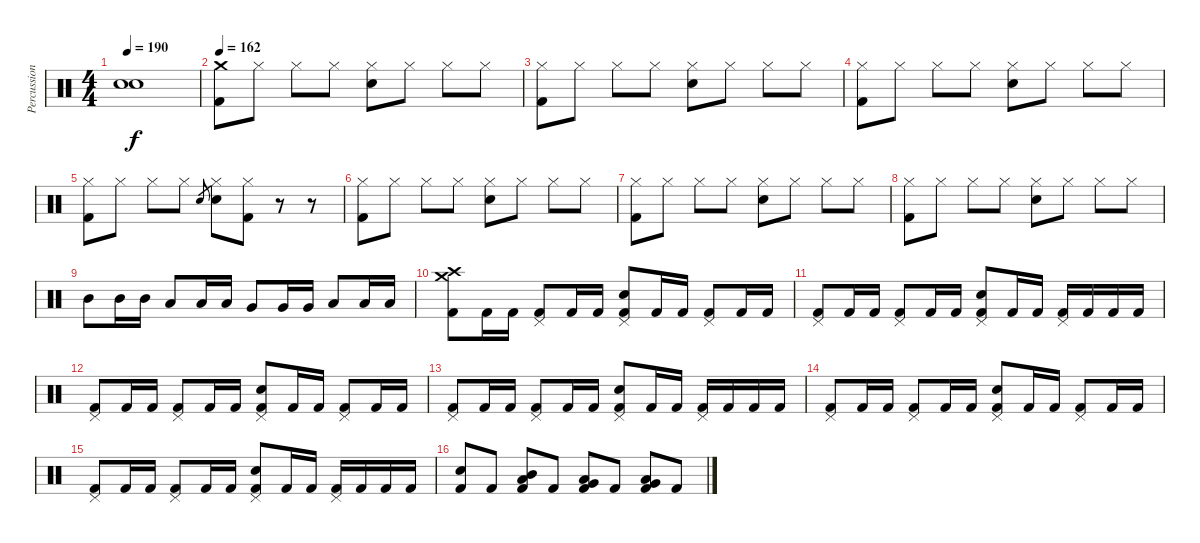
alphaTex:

\track ("Percussion" "Percussion") {instrument percussion}
\staff {score}
\articulation defaults
\ts (4 4)
\tempo 190
\clef neutral
\ks c
("Snare (hit)"{t} "Snare (hit)"{t}).1{dy f} |
\tempo 162
("Kick (hit) 2" "Crash medium (hit)").8{volume 14} "Hi-Hat (closed)".8 "Hi-Hat (closed)".8 "Hi-Hat (closed)".8 ("Snare (hit) 2" "Hi-Hat (closed)").8 "Hi-Hat (closed)".8 "Hi-Hat (closed)".8 "Hi-Hat (closed)".8 |
("Kick (hit) 2" "Hi-Hat (closed)").8 "Hi-Hat (closed)".8 "Hi-Hat (closed)".8 "Hi-Hat (closed)".8 ("Snare (hit) 2" "Hi-Hat (closed)").8 "Hi-Hat (closed)".8 "Hi-Hat (closed)".8 "Hi-Hat (closed)".8 |
("Kick (hit) 2" "Hi-Hat (closed)").8 "Hi-Hat (closed)".8 "Hi-Hat (closed)".8 "Hi-Hat (closed)".8 ("Snare (hit) 2" "Hi-Hat (closed)").8 "Hi-Hat (closed)".8 "Hi-Hat (closed)".8 "Hi-Hat (closed)".8 |
("Kick (hit) 2" "Hi-Hat (closed)").8 "Hi-Hat (closed)".8 "Hi-Hat (closed)".8 "Hi-Hat (closed)".8 "Snare (hit) 2".8{gr} ("Snare (hit) 2" "Hi-Hat (closed)").8 ("Kick (hit) 2" "Hi-Hat (closed)").8 r.8 r.8 |
("Kick (hit) 2" "Hi-Hat (closed)").8 "Hi-Hat (closed)".8 "Hi-Hat (closed)".8 "Hi-Hat (closed)".8 ("Snare (hit) 2" "Hi-Hat (closed)").8 "Hi-Hat (closed)".8 "Hi-Hat (closed)".8 "Hi-Hat (closed)".8 |
("Kick (hit) 2" "Hi-Hat (closed)").8 "Hi-Hat (closed)".8 "Hi-Hat (closed)".8 "Hi-Hat (closed)".8 ("Snare (hit) 2" "Hi-Hat (closed)").8 "Hi-Hat (closed)".8 "Hi-Hat (closed)".8 "Hi-Hat (closed)".8 |
("Kick (hit) 2" "Hi-Hat (closed)").8 "Hi-Hat (closed)".8 "Hi-Hat (closed)".8 "Hi-Hat (closed)".8 ("Snare (hit) 2" "Hi-Hat (closed)").8 "Hi-Hat (closed)".8 "Hi-Hat (closed)".8 "Hi-Hat (closed)".8 |
"Mid Tom (hit)".8 "Mid Tom (hit)".16 "Mid Tom (hit)".16 "Low Tom (hit)".8 "Low Tom (hit)".16 "Low Tom (hit)".16 "Very Low Tom (hit)".8 "Very Low Tom (hit)".16 "Very Low Tom (hit)".16 "Low Floor Tom (hit)".8 "Low Floor Tom (hit)".16 "Low Floor Tom (hit)".16 |
("Kick (hit) 2" "Crash high (hit)" "Crash medium (hit)").8 "Kick (hit) 2".16 "Kick (hit) 2".16 ("Kick (hit) 2" "Pedal Hi-Hat (hit)").8 "Kick (hit) 2".16 "Kick (hit) 2".16 ("Kick (hit) 2" "Snare (hit) 2" "Pedal Hi-Hat (hit)").8 "Kick (hit) 2".16 "Kick (hit) 2".16 ("Kick (hit) 2" "Pedal Hi-Hat (hit)").8 "Kick (hit) 2".16 "Kick (hit) 2".16 |
("Kick (hit) 2" "Pedal Hi-Hat (hit)").8 "Kick (hit) 2".16 "Kick (hit) 2".16 ("Kick (hit) 2" "Pedal Hi-Hat (hit)").8 "Kick (hit) 2".16 "Kick (hit) 2".16 ("Kick (hit) 2" "Snare (hit) 2" "Pedal Hi-Hat (hit)").8 "Kick (hit) 2".16 "Kick (hit) 2".16 ("Kick (hit) 2" "Pedal Hi-Hat (hit)").16 "Kick (hit) 2".16 "Kick (hit) 2".16 "Kick (hit) 2".16 |
("Kick (hit) 2" "Pedal Hi-Hat (hit)").8 "Kick (hit) 2".16 "Kick (hit) 2".16 ("Kick (hit) 2" "Pedal Hi-Hat (hit)").8 "Kick (hit) 2".16 "Kick (hit) 2".16 ("Kick (hit) 2" "Snare (hit) 2" "Pedal Hi-Hat (hit)").8 "Kick (hit) 2".16 "Kick (hit) 2".16 ("Kick (hit) 2" "Pedal Hi-Hat (hit)").8 "Kick (hit) 2".16 "Kick (hit) 2".16 |
("Kick (hit) 2" "Pedal Hi-Hat (hit)").8 "Kick (hit) 2".16 "Kick (hit) 2".16 ("Kick (hit) 2" "Pedal Hi-Hat (hit)").8 "Kick (hit) 2".16 "Kick (hit) 2".16 ("Kick (hit) 2" "Snare (hit) 2" "Pedal Hi-Hat (hit)").8 "Kick (hit) 2".16 "Kick (hit) 2".16 ("Kick (hit) 2" "Pedal Hi-Hat (hit)").16 "Kick (hit) 2".16 "Kick (hit) 2".16 "Kick (hit) 2".16 |
("Kick (hit) 2" "Pedal Hi-Hat (hit)").8 "Kick (hit) 2".16 "Kick (hit) 2".16 ("Kick (hit) 2" "Pedal Hi-Hat (hit)").8 "Kick (hit) 2".16 "Kick (hit) 2".16 ("Kick (hit) 2" "Snare (hit) 2" "Pedal Hi-Hat (hit)").8 "Kick (hit) 2".16 "Kick (hit) 2".16 ("Kick (hit) 2" "Pedal Hi-Hat (hit)").8 "Kick (hit) 2".16 "Kick (hit) 2".16 |
("Kick (hit) 2" "Pedal Hi-Hat (hit)").8 "Kick (hit) 2".16 "Kick (hit) 2".16 ("Kick (hit) 2" "Pedal Hi-Hat (hit)").8 "Kick (hit) 2".16 "Kick (hit) 2".16 ("Kick (hit) 2" "Snare (hit) 2" "Pedal Hi-Hat (hit)").8 "Kick (hit) 2".16 "Kick (hit) 2".16 ("Kick (hit) 2" "Pedal Hi-Hat (hit)").16 "Kick (hit) 2".16 "Kick (hit) 2".16 "Kick (hit) 2".16 |
("Kick (hit) 2" "Snare (hit) 2").8 "Kick (hit) 2".8 ("Kick (hit) 2" "Low Tom (hit)" "Mid Tom (hit)").8 "Kick (hit) 2".8 ("Kick (hit) 2" "Very Low Tom (hit)" "Low Tom (hit)").8 "Kick (hit) 2".8 ("Kick (hit) 2" "Low Floor Tom (hit)" "Very Low Tom (hit)").8 "Kick (hit) 2".8
